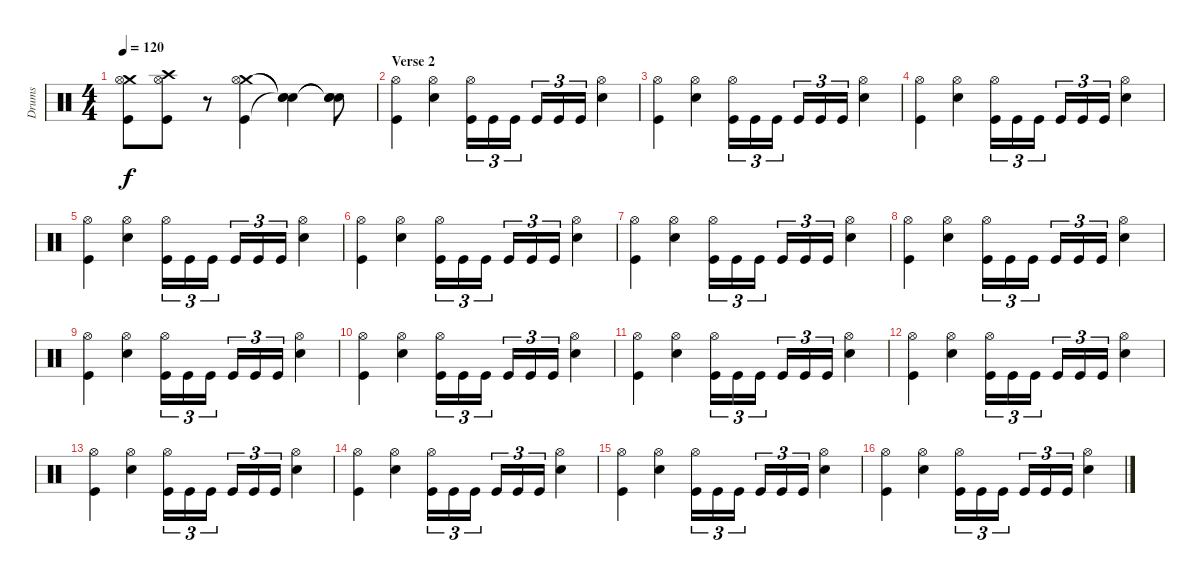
\track ("Drums" "Drums") {instrument percussion}
\staff {score}
\articulation defaults
\ts (4 4)
\tempo 120
\clef neutral
\ks c
("Crash medium (hit)" "Hi-Hat (open)" "Kick (hit)").8{dy f} ("Crash high (hit)" "Hi-Hat (open)" "Kick (hit)").8 r.8 ("Crash medium (hit)" "Hi-Hat (open)" "Kick (hit)").4 ("Snare (hit)"{t} "Snare (hit)"{t} "Snare (hit)"{t}).4 ("Snare (hit)"{t} "Snare (hit)"{t} "Snare (hit)"{t}).8 |
\section ("" "Verse 2")
("Hi-Hat (open)" "Kick (hit)").4 ("Hi-Hat (open)" "Snare (hit) 2").4 ("Hi-Hat (open)" "Kick (hit)").16{tu (3 2)} "Kick (hit)".16{tu (3 2)} "Kick (hit)".16{tu (3 2)} "Kick (hit)".16{tu (3 2)} "Kick (hit)".16{tu (3 2)} "Kick (hit)".16{tu (3 2)} ("Hi-Hat (open)" "Snare (hit) 2").4 |
("Hi-Hat (open)" "Kick (hit)").4 ("Hi-Hat (open)" "Snare (hit) 2").4 ("Hi-Hat (open)" "Kick (hit)").16{tu (3 2)} "Kick (hit)".16{tu (3 2)} "Kick (hit)".16{tu (3 2)} "Kick (hit)".16{tu (3 2)} "Kick (hit)".16{tu (3 2)} "Kick (hit)".16{tu (3 2)} ("Hi-Hat (open)" "Snare (hit) 2").4 |
("Hi-Hat (open)" "Kick (hit)").4 ("Hi-Hat (open)" "Snare (hit) 2").4 ("Hi-Hat (open)" "Kick (hit)").16{tu (3 2)} "Kick (hit)".16{tu (3 2)} "Kick (hit)".16{tu (3 2)} "Kick (hit)".16{tu (3 2)} "Kick (hit)".16{tu (3 2)} "Kick (hit)".16{tu (3 2)} ("Hi-Hat (open)" "Snare (hit) 2").4 |
("Hi-Hat (open)" "Kick (hit)").4 ("Hi-Hat (open)" "Snare (hit) 2").4 ("Hi-Hat (open)" "Kick (hit)").16{tu (3 2)} "Kick (hit)".16{tu (3 2)} "Kick (hit)".16{tu (3 2)} "Kick (hit)".16{tu (3 2)} "Kick (hit)".16{tu (3 2)} "Kick (hit)".16{tu (3 2)} ("Hi-Hat (open)" "Snare (hit) 2").4 |
("Hi-Hat (open)" "Kick (hit)").4 ("Hi-Hat (open)" "Snare (hit) 2").4 ("Hi-Hat (open)" "Kick (hit)").16{tu (3 2)} "Kick (hit)".16{tu (3 2)} "Kick (hit)".16{tu (3 2)} "Kick (hit)".16{tu (3 2)} "Kick (hit)".16{tu (3 2)} "Kick (hit)".16{tu (3 2)} ("Hi-Hat (open)" "Snare (hit) 2").4 |
("Hi-Hat (open)" "Kick (hit)").4 ("Hi-Hat (open)" "Snare (hit) 2").4 ("Hi-Hat (open)" "Kick (hit)").16{tu (3 2)} "Kick (hit)".16{tu (3 2)} "Kick (hit)".16{tu (3 2)} "Kick (hit)".16{tu (3 2)} "Kick (hit)".16{tu (3 2)} "Kick (hit)".16{tu (3 2)} ("Hi-Hat (open)" "Snare (hit) 2").4 |
("Hi-Hat (open)" "Kick (hit)").4 ("Hi-Hat (open)" "Snare (hit) 2").4 ("Hi-Hat (open)" "Kick (hit)").16{tu (3 2)} "Kick (hit)".16{tu (3 2)} "Kick (hit)".16{tu (3 2)} "Kick (hit)".16{tu (3 2)} "Kick (hit)".16{tu (3 2)} "Kick (hit)".16{tu (3 2)} ("Hi-Hat (open)" "Snare (hit) 2").4 |
("Hi-Hat (open)" "Kick (hit)").4 ("Hi-Hat (open)" "Snare (hit) 2").4 ("Hi-Hat (open)" "Kick (hit)").16{tu (3 2)} "Kick (hit)".16{tu (3 2)} "Kick (hit)".16{tu (3 2)} "Kick (hit)".16{tu (3 2)} "Kick (hit)".16{tu (3 2)} "Kick (hit)".16{tu (3 2)} ("Hi-Hat (open)" "Snare (hit) 2").4 |
("Hi-Hat (open)" "Kick (hit)").4 ("Hi-Hat (open)" "Snare (hit) 2").4 ("Hi-Hat (open)" "Kick (hit)").16{tu (3 2)} "Kick (hit)".16{tu (3 2)} "Kick (hit)".16{tu (3 2)} "Kick (hit)".16{tu (3 2)} "Kick (hit)".16{tu (3 2)} "Kick (hit)".16{tu (3 2)} ("Hi-Hat (open)" "Snare (hit) 2").4 |
("Hi-Hat (open)" "Kick (hit)").4 ("Hi-Hat (open)" "Snare (hit) 2").4 ("Hi-Hat (open)" "Kick (hit)").16{tu (3 2)} "Kick (hit)".16{tu (3 2)} "Kick (hit)".16{tu (3 2)} "Kick (hit)".16{tu (3 2)} "Kick (hit)".16{tu (3 2)} "Kick (hit)".16{tu (3 2)} ("Hi-Hat (open)" "Snare (hit) 2").4 |
("Hi-Hat (open)" "Kick (hit)").4 ("Hi-Hat (open)" "Snare (hit) 2").4 ("Hi-Hat (open)" "Kick (hit)").16{tu (3 2)} "Kick (hit)".16{tu (3 2)} "Kick (hit)".16{tu (3 2)} "Kick (hit)".16{tu (3 2)} "Kick (hit)".16{tu (3 2)} "Kick (hit)".16{tu (3 2)} ("Hi-Hat (open)" "Snare (hit) 2").4 |
("Hi-Hat (open)" "Kick (hit)").4 ("Hi-Hat (open)" "Snare (hit) 2").4 ("Hi-Hat (open)" "Kick (hit)").16{tu (3 2)} "Kick (hit)".16{tu (3 2)} "Kick (hit)".16{tu (3 2)} "Kick (hit)".16{tu (3 2)} "Kick (hit)".16{tu (3 2)} "Kick (hit)".16{tu (3 2)} ("Hi-Hat (open)" "Snare (hit) 2").4 |
("Hi-Hat (open)" "Kick (hit)").4 ("Hi-Hat (open)" "Snare (hit) 2").4 ("Hi-Hat (open)" "Kick (hit)").16{tu (3 2)} "Kick (hit)".16{tu (3 2)} "Kick (hit)".16{tu (3 2)} "Kick (hit)".16{tu (3 2)} "Kick (hit)".16{tu (3 2)} "Kick (hit)".16{tu (3 2)} ("Hi-Hat (open)" "Snare (hit) 2").4 |
("Hi-Hat (open)" "Kick (hit)").4 ("Hi-Hat (open)" "Snare (hit) 2").4 ("Hi-Hat (open)" "Kick (hit)").16{tu (3 2)} "Kick (hit)".16{tu (3 2)} "Kick (hit)".16{tu (3 2)} "Kick (hit)".16{tu (3 2)} "Kick (hit)".16{tu (3 2)} "Kick (hit)".16{tu (3 2)} ("Hi-Hat (open)" "Snare (hit) 2").4 |
("Hi-Hat (open)" "Kick (hit)").4 ("Hi-Hat (open)" "Snare (hit) 2").4 ("Hi-Hat (open)" "Kick (hit)").16{tu (3 2)} "Kick (hit)".16{tu (3 2)} "Kick (hit)".16{tu (3 2)} "Kick (hit)".16{tu (3 2)} "Kick (hit)".16{tu (3 2)} "Kick (hit)".16{tu (3 2)} ("Hi-Hat (open)" "Snare (hit) 2").4
